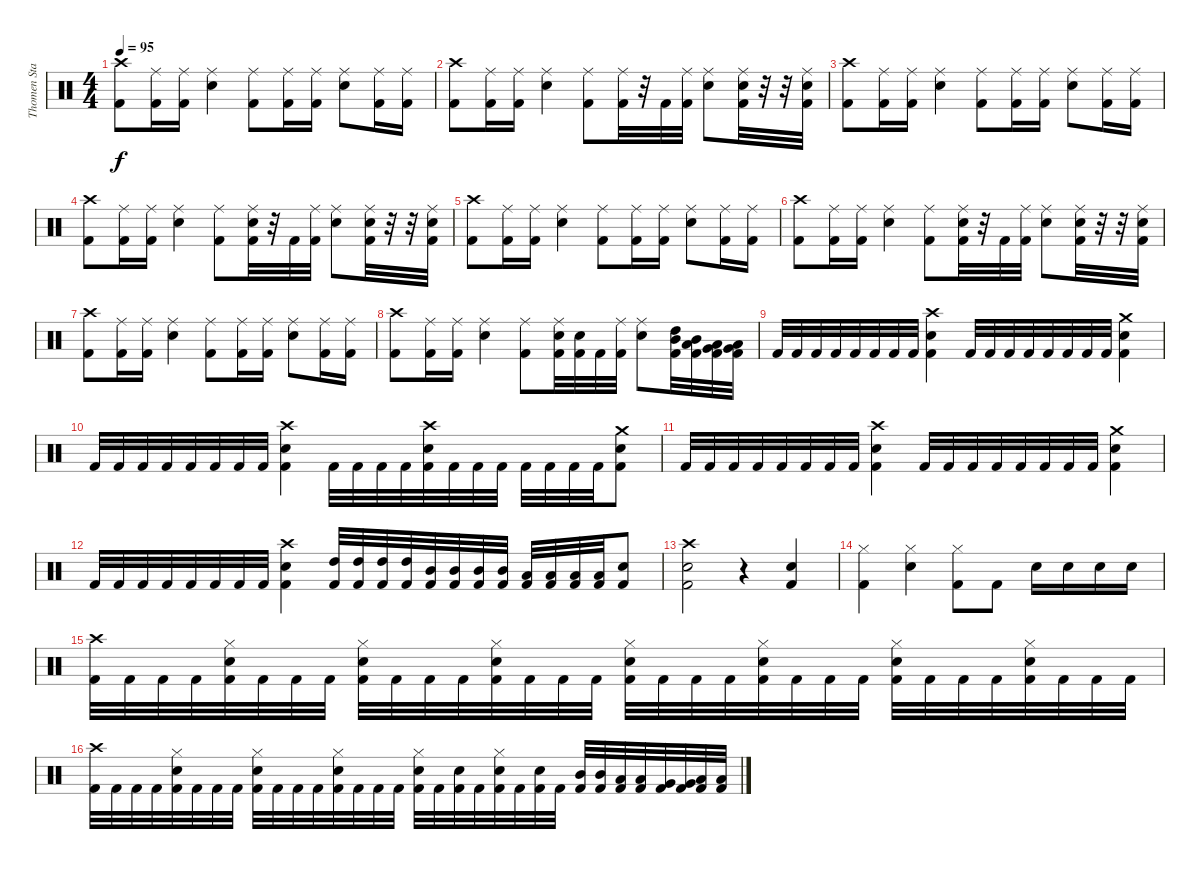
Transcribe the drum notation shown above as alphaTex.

\track ("Thomen Stauch" "Thomen Sta") {instrument percussion}
\staff {score}
\articulation defaults
\ts (4 4)
\tempo 95
\clef neutral
\ks c
("Crash high (hit)" "Kick (hit) 2").8{dy f} ("Ride (middle)" "Kick (hit) 2").16 ("Ride (middle)" "Kick (hit) 2").16 ("Ride (middle)" "Snare (hit) 2").4 ("Ride (middle)" "Kick (hit) 2").8 ("Ride (middle)" "Kick (hit) 2").16 ("Ride (middle)" "Kick (hit) 2").16 ("Ride (middle)" "Snare (hit) 2").8 ("Ride (middle)" "Kick (hit) 2").16 ("Ride (middle)" "Kick (hit) 2").16 |
("Crash high (hit)" "Kick (hit) 2").8 ("Ride (middle)" "Kick (hit) 2").16 ("Ride (middle)" "Kick (hit) 2").16 ("Ride (middle)" "Snare (hit) 2").4 ("Ride (middle)" "Kick (hit) 2").8 ("Ride (middle)" "Kick (hit) 2").32 r.32 "Kick (hit) 2".32 ("Ride (middle)" "Kick (hit) 2").32 ("Ride (middle)" "Snare (hit) 2").8 ("Ride (middle)" "Snare (hit) 2" "Kick (hit) 2").32 r.32 r.32 ("Ride (middle)" "Snare (hit) 2" "Kick (hit) 2").32 |
("Crash high (hit)" "Kick (hit) 2").8 ("Ride (middle)" "Kick (hit) 2").16 ("Ride (middle)" "Kick (hit) 2").16 ("Ride (middle)" "Snare (hit) 2").4 ("Ride (middle)" "Kick (hit) 2").8 ("Ride (middle)" "Kick (hit) 2").16 ("Ride (middle)" "Kick (hit) 2").16 ("Ride (middle)" "Snare (hit) 2").8 ("Ride (middle)" "Kick (hit) 2").16 ("Ride (middle)" "Kick (hit) 2").16 |
("Crash high (hit)" "Kick (hit) 2").8 ("Ride (middle)" "Kick (hit) 2").16 ("Ride (middle)" "Kick (hit) 2").16 ("Ride (middle)" "Snare (hit) 2").4 ("Ride (middle)" "Kick (hit) 2").8 ("Ride (middle)" "Snare (hit) 2" "Kick (hit) 2").32 r.32 "Kick (hit) 2".32 ("Ride (middle)" "Kick (hit) 2").32 ("Ride (middle)" "Snare (hit) 2").8 ("Ride (middle)" "Snare (hit) 2" "Kick (hit) 2").32 r.32 r.32 ("Ride (middle)" "Snare (hit) 2" "Kick (hit) 2").32 |
("Crash high (hit)" "Kick (hit) 2").8 ("Ride (middle)" "Kick (hit) 2").16 ("Ride (middle)" "Kick (hit) 2").16 ("Ride (middle)" "Snare (hit) 2").4 ("Ride (middle)" "Kick (hit) 2").8 ("Ride (middle)" "Kick (hit) 2").16 ("Ride (middle)" "Kick (hit) 2").16 ("Ride (middle)" "Snare (hit) 2").8 ("Ride (middle)" "Kick (hit) 2").16 ("Ride (middle)" "Kick (hit) 2").16 |
("Crash high (hit)" "Kick (hit) 2").8 ("Ride (middle)" "Kick (hit) 2").16 ("Ride (middle)" "Kick (hit) 2").16 ("Ride (middle)" "Snare (hit) 2").4 ("Ride (middle)" "Kick (hit) 2").8 ("Ride (middle)" "Snare (hit) 2" "Kick (hit) 2").32 r.32 "Kick (hit) 2".32 ("Ride (middle)" "Kick (hit) 2").32 ("Ride (middle)" "Snare (hit) 2").8 ("Ride (middle)" "Snare (hit) 2" "Kick (hit) 2").32 r.32 r.32 ("Ride (middle)" "Snare (hit) 2" "Kick (hit) 2").32 |
("Crash high (hit)" "Kick (hit) 2").8 ("Ride (middle)" "Kick (hit) 2").16 ("Ride (middle)" "Kick (hit) 2").16 ("Ride (middle)" "Snare (hit) 2").4 ("Ride (middle)" "Kick (hit) 2").8 ("Ride (middle)" "Kick (hit) 2").16 ("Ride (middle)" "Kick (hit) 2").16 ("Ride (middle)" "Snare (hit) 2").8 ("Ride (middle)" "Kick (hit) 2").16 ("Ride (middle)" "Kick (hit) 2").16 |
("Crash high (hit)" "Kick (hit) 2").8 ("Ride (middle)" "Kick (hit) 2").16 ("Ride (middle)" "Kick (hit) 2").16 ("Ride (middle)" "Snare (hit) 2").4 ("Ride (middle)" "Kick (hit) 2").8 ("Ride (middle)" "Snare (hit) 2" "Kick (hit) 2").32 ("Snare (hit) 2" "Kick (hit) 2").32 "Kick (hit) 2".32 ("Ride (middle)" "Kick (hit) 2").32 ("Ride (middle)" "Snare (hit) 2").8 ("High Tom (hit)" "Mid Tom (hit)" "Kick (hit) 2").32 ("Mid Tom (hit)" "Low Tom (hit)" "Kick (hit) 2").32 ("Low Tom (hit)" "Very Low Tom (hit)" "Kick (hit) 2").32 ("Very Low Tom (hit)" "Low Floor Tom (hit)" "Kick (hit) 2").32 |
"Kick (hit) 2".32 "Kick (hit) 2".32 "Kick (hit) 2".32 "Kick (hit) 2".32 "Kick (hit) 2".32 "Kick (hit) 2".32 "Kick (hit) 2".32 "Kick (hit) 2".32 ("Crash high (hit)" "Snare (hit) 2" "Kick (hit) 2").4 "Kick (hit) 2".32 "Kick (hit) 2".32 "Kick (hit) 2".32 "Kick (hit) 2".32 "Kick (hit) 2".32 "Kick (hit) 2".32 "Kick (hit) 2".32 "Kick (hit) 2".32 ("Crash medium (hit)" "Snare (hit) 2" "Kick (hit) 2").4 |
"Kick (hit) 2".32 "Kick (hit) 2".32 "Kick (hit) 2".32 "Kick (hit) 2".32 "Kick (hit) 2".32 "Kick (hit) 2".32 "Kick (hit) 2".32 "Kick (hit) 2".32 ("Crash high (hit)" "Snare (hit) 2" "Kick (hit) 2").4 "Kick (hit) 2".32 "Kick (hit) 2".32 "Kick (hit) 2".32 "Kick (hit) 2".32 ("Crash high (hit)" "Snare (hit) 2" "Kick (hit) 2").32 "Kick (hit) 2".32 "Kick (hit) 2".32 "Kick (hit) 2".32 "Kick (hit) 2".32 "Kick (hit) 2".32 "Kick (hit) 2".32 "Kick (hit) 2".32 ("Crash medium (hit)" "Snare (hit) 2" "Kick (hit) 2").8 |
"Kick (hit) 2".32 "Kick (hit) 2".32 "Kick (hit) 2".32 "Kick (hit) 2".32 "Kick (hit) 2".32 "Kick (hit) 2".32 "Kick (hit) 2".32 "Kick (hit) 2".32 ("Crash high (hit)" "Snare (hit) 2" "Kick (hit) 2").4 "Kick (hit) 2".32 "Kick (hit) 2".32 "Kick (hit) 2".32 "Kick (hit) 2".32 "Kick (hit) 2".32 "Kick (hit) 2".32 "Kick (hit) 2".32 "Kick (hit) 2".32 ("Crash medium (hit)" "Snare (hit) 2" "Kick (hit) 2").4 |
"Kick (hit) 2".32 "Kick (hit) 2".32 "Kick (hit) 2".32 "Kick (hit) 2".32 "Kick (hit) 2".32 "Kick (hit) 2".32 "Kick (hit) 2".32 "Kick (hit) 2".32 ("Crash high (hit)" "Snare (hit) 2" "Kick (hit) 2").4 ("High Tom (hit)" "Kick (hit) 2").32 ("High Tom (hit)" "Kick (hit) 2").32 ("High Tom (hit)" "Kick (hit) 2").32 ("High Tom (hit)" "Kick (hit) 2").32 ("Mid Tom (hit)" "Kick (hit) 2").32 ("Mid Tom (hit)" "Kick (hit) 2").32 ("Mid Tom (hit)" "Kick (hit) 2").32 ("Mid Tom (hit)" "Kick (hit) 2").32 ("Low Tom (hit)" "Kick (hit) 2").32 ("Low Tom (hit)" "Kick (hit) 2").32 ("Low Tom (hit)" "Kick (hit) 2").32 ("Low Tom (hit)" "Kick (hit) 2").32 ("Snare (hit) 2" "Kick (hit) 2").8 |
("Crash high (hit)" "Snare (hit) 2" "Kick (hit) 2").2 r.4 ("Snare (hit) 2" "Kick (hit) 2").4 |
("Hi-Hat (closed)" "Kick (hit) 2").4 ("Hi-Hat (closed)" "Snare (hit) 2").4 ("Hi-Hat (closed)" "Kick (hit) 2").8 "Kick (hit) 2".8 "Snare (hit) 2".16 "Snare (hit) 2".16 "Snare (hit) 2".16 "Snare (hit) 2".16 |
("Crash high (hit)" "Kick (hit) 2").32 "Kick (hit) 2".32 "Kick (hit) 2".32 "Kick (hit) 2".32 ("Hi-Hat (closed)" "Snare (hit) 2" "Kick (hit) 2").32 "Kick (hit) 2".32 "Kick (hit) 2".32 "Kick (hit) 2".32 ("Hi-Hat (closed)" "Snare (hit) 2" "Kick (hit) 2").32 "Kick (hit) 2".32 "Kick (hit) 2".32 "Kick (hit) 2".32 ("Hi-Hat (closed)" "Snare (hit) 2" "Kick (hit) 2").32 "Kick (hit) 2".32 "Kick (hit) 2".32 "Kick (hit) 2".32 ("Hi-Hat (closed)" "Snare (hit) 2" "Kick (hit) 2").32 "Kick (hit) 2".32 "Kick (hit) 2".32 "Kick (hit) 2".32 ("Hi-Hat (closed)" "Snare (hit) 2" "Kick (hit) 2").32 "Kick (hit) 2".32 "Kick (hit) 2".32 "Kick (hit) 2".32 ("Hi-Hat (closed)" "Snare (hit) 2" "Kick (hit) 2").32 "Kick (hit) 2".32 "Kick (hit) 2".32 "Kick (hit) 2".32 ("Hi-Hat (closed)" "Snare (hit) 2" "Kick (hit) 2").32 "Kick (hit) 2".32 "Kick (hit) 2".32 "Kick (hit) 2".32 |
("Crash high (hit)" "Kick (hit) 2").32 "Kick (hit) 2".32 "Kick (hit) 2".32 "Kick (hit) 2".32 ("Hi-Hat (closed)" "Snare (hit) 2" "Kick (hit) 2").32 "Kick (hit) 2".32 "Kick (hit) 2".32 "Kick (hit) 2".32 ("Hi-Hat (closed)" "Snare (hit) 2" "Kick (hit) 2").32 "Kick (hit) 2".32 "Kick (hit) 2".32 "Kick (hit) 2".32 ("Hi-Hat (closed)" "Snare (hit) 2" "Kick (hit) 2").32 "Kick (hit) 2".32 "Kick (hit) 2".32 "Kick (hit) 2".32 ("Hi-Hat (closed)" "Snare (hit) 2" "Kick (hit) 2").32 "Kick (hit) 2".32 ("Snare (hit) 2" "Kick (hit) 2").32 "Kick (hit) 2".32 ("Hi-Hat (closed)" "Snare (hit) 2" "Kick (hit) 2").32 "Kick (hit) 2".32 ("Snare (hit) 2" "Kick (hit) 2").32 "Kick (hit) 2".32 ("Mid Tom (hit)" "Kick (hit) 2").32 ("Mid Tom (hit)" "Kick (hit) 2").32 ("Low Tom (hit)" "Kick (hit) 2").32 ("Low Tom (hit)" "Kick (hit) 2").32 ("Very Low Tom (hit)" "Kick (hit) 2").32 ("Very Low Tom (hit)" "Kick (hit) 2").32 ("Low Floor Tom (hit)" "Kick (hit) 2").32 ("Low Floor Tom (hit)" "Kick (hit) 2").32
